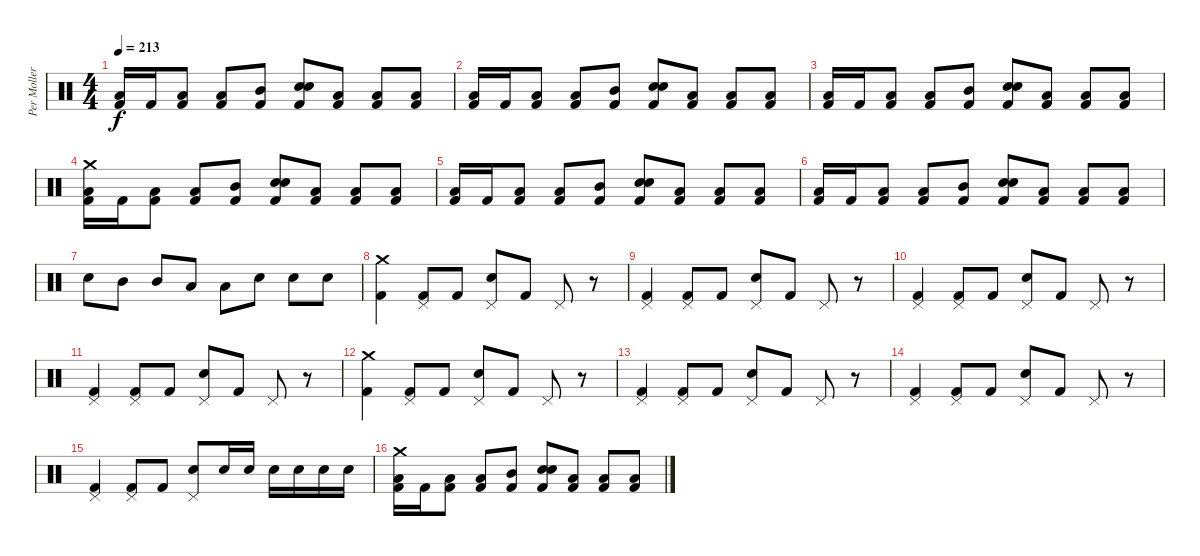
\track ("Per Moller Jensen" "Per Moller") {instrument percussion}
\staff {score}
\articulation defaults
\ts (4 4)
\tempo 213
\clef neutral
\ks c
("Low Tom (hit)" "Kick (hit) 2").16{dy f} "Kick (hit) 2".16 ("Low Tom (hit)" "Kick (hit) 2").8 ("Low Tom (hit)" "Kick (hit) 2").8 ("Mid Tom (hit)" "Kick (hit) 2").8 ("Snare (hit) 2" "Snare (hit) 2" "Kick (hit) 2").8 ("Low Tom (hit)" "Kick (hit) 2").8 ("Low Floor Tom (hit)" "Kick (hit) 2").8 ("Low Floor Tom (hit)" "Kick (hit) 2").8 |
("Low Tom (hit)" "Kick (hit) 2").16 "Kick (hit) 2".16 ("Low Tom (hit)" "Kick (hit) 2").8 ("Low Tom (hit)" "Kick (hit) 2").8 ("Mid Tom (hit)" "Kick (hit) 2").8 ("Snare (hit) 2" "Snare (hit) 2" "Kick (hit) 2").8 ("Low Tom (hit)" "Kick (hit) 2").8 ("Low Floor Tom (hit)" "Kick (hit) 2").8 ("Low Floor Tom (hit)" "Kick (hit) 2").8 |
("Low Tom (hit)" "Kick (hit) 2").16 "Kick (hit) 2".16 ("Low Tom (hit)" "Kick (hit) 2").8 ("Low Tom (hit)" "Kick (hit) 2").8 ("Mid Tom (hit)" "Kick (hit) 2").8 ("Snare (hit) 2" "Snare (hit) 2" "Kick (hit) 2").8 ("Low Tom (hit)" "Kick (hit) 2").8 ("Low Floor Tom (hit)" "Kick (hit) 2").8 ("Low Floor Tom (hit)" "Kick (hit) 2").8 |
("Crash medium (hit)" "Low Tom (hit)" "Kick (hit) 2").16 "Kick (hit) 2".16 ("Low Tom (hit)" "Kick (hit) 2").8 ("Low Tom (hit)" "Kick (hit) 2").8 ("Mid Tom (hit)" "Kick (hit) 2").8 ("Snare (hit) 2" "Snare (hit) 2" "Kick (hit) 2").8 ("Low Tom (hit)" "Kick (hit) 2").8 ("Low Floor Tom (hit)" "Kick (hit) 2").8 ("Low Floor Tom (hit)" "Kick (hit) 2").8 |
("Low Tom (hit)" "Kick (hit) 2").16 "Kick (hit) 2".16 ("Low Tom (hit)" "Kick (hit) 2").8 ("Low Tom (hit)" "Kick (hit) 2").8 ("Mid Tom (hit)" "Kick (hit) 2").8 ("Snare (hit) 2" "Snare (hit) 2" "Kick (hit) 2").8 ("Low Tom (hit)" "Kick (hit) 2").8 ("Low Floor Tom (hit)" "Kick (hit) 2").8 ("Low Floor Tom (hit)" "Kick (hit) 2").8 |
("Low Tom (hit)" "Kick (hit) 2").16 "Kick (hit) 2".16 ("Low Tom (hit)" "Kick (hit) 2").8 ("Low Tom (hit)" "Kick (hit) 2").8 ("Mid Tom (hit)" "Kick (hit) 2").8 ("Snare (hit) 2" "Snare (hit) 2" "Kick (hit) 2").8 ("Low Tom (hit)" "Kick (hit) 2").8 ("Low Floor Tom (hit)" "Kick (hit) 2").8 ("Low Floor Tom (hit)" "Kick (hit) 2").8 |
"Snare (hit) 2".8 "Mid Tom (hit)".8 "Mid Tom (hit)".8 "Low Tom (hit)".8 "Low Tom (hit)".8 "Snare (hit) 2".8 "Snare (hit) 2".8 "Snare (hit) 2".8 |
("Crash medium (hit)" "Kick (hit) 2").4 ("Pedal Hi-Hat (hit)" "Kick (hit) 2").8 "Kick (hit) 2".8 ("Pedal Hi-Hat (hit)" "Snare (hit) 2").8 "Kick (hit) 2".8 "Pedal Hi-Hat (hit)".8 r.8 |
("Pedal Hi-Hat (hit)" "Kick (hit) 2").4 ("Pedal Hi-Hat (hit)" "Kick (hit) 2").8 "Kick (hit) 2".8 ("Pedal Hi-Hat (hit)" "Snare (hit) 2").8 "Kick (hit) 2".8 "Pedal Hi-Hat (hit)".8 r.8 |
("Pedal Hi-Hat (hit)" "Kick (hit) 2").4 ("Pedal Hi-Hat (hit)" "Kick (hit) 2").8 "Kick (hit) 2".8 ("Pedal Hi-Hat (hit)" "Snare (hit) 2").8 "Kick (hit) 2".8 "Pedal Hi-Hat (hit)".8 r.8 |
("Pedal Hi-Hat (hit)" "Kick (hit) 2").4 ("Pedal Hi-Hat (hit)" "Kick (hit) 2").8 "Kick (hit) 2".8 ("Pedal Hi-Hat (hit)" "Snare (hit) 2").8 "Kick (hit) 2".8 "Pedal Hi-Hat (hit)".8 r.8 |
("Crash medium (hit)" "Kick (hit) 2").4 ("Pedal Hi-Hat (hit)" "Kick (hit) 2").8 "Kick (hit) 2".8 ("Pedal Hi-Hat (hit)" "Snare (hit) 2").8 "Kick (hit) 2".8 "Pedal Hi-Hat (hit)".8 r.8 |
("Pedal Hi-Hat (hit)" "Kick (hit) 2").4 ("Pedal Hi-Hat (hit)" "Kick (hit) 2").8 "Kick (hit) 2".8 ("Pedal Hi-Hat (hit)" "Snare (hit) 2").8 "Kick (hit) 2".8 "Pedal Hi-Hat (hit)".8 r.8 |
("Pedal Hi-Hat (hit)" "Kick (hit) 2").4 ("Pedal Hi-Hat (hit)" "Kick (hit) 2").8 "Kick (hit) 2".8 ("Pedal Hi-Hat (hit)" "Snare (hit) 2").8 "Kick (hit) 2".8 "Pedal Hi-Hat (hit)".8 r.8 |
("Pedal Hi-Hat (hit)" "Kick (hit) 2").4 ("Pedal Hi-Hat (hit)" "Kick (hit) 2").8 "Kick (hit) 2".8 ("Pedal Hi-Hat (hit)" "Snare (hit) 2").8 "Snare (hit) 2".16 "Snare (hit) 2".16 "Snare (hit) 2".16 "Snare (hit) 2".16 "Snare (hit) 2".16 "Snare (hit) 2".16 |
("Crash medium (hit)" "Low Tom (hit)" "Kick (hit) 2").16 "Kick (hit) 2".16 ("Low Tom (hit)" "Kick (hit) 2").8 ("Low Tom (hit)" "Kick (hit) 2").8 ("Mid Tom (hit)" "Kick (hit) 2").8 ("Snare (hit) 2" "Snare (hit) 2" "Kick (hit) 2").8 ("Low Tom (hit)" "Kick (hit) 2").8 ("Low Floor Tom (hit)" "Kick (hit) 2").8 ("Low Floor Tom (hit)" "Kick (hit) 2").8
